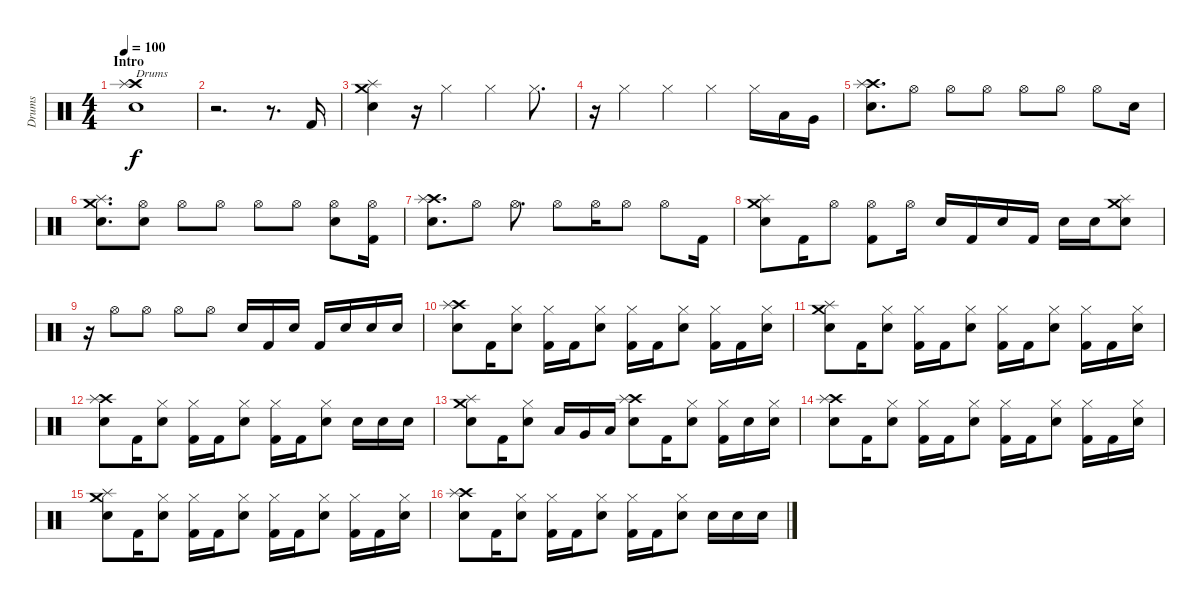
\track ("Drums" "Drums") {instrument percussion}
\staff {score}
\articulation defaults
\ts (4 4)
\section ("" "Intro")
\tempo 100
\clef neutral
\ks c
("Crash high (hit)" "Splash (hit)" "Snare (hit) 2").1{txt "Drums" dy f} |
r.2{d} r.8{d} "Kick (hit) 2".16 |
("Crash medium (hit)" "Splash (hit)" "Snare (hit) 2").4 r.16 "Hi-Hat (closed)".4 "Hi-Hat (closed)".4 "Hi-Hat (closed)".8{d} |
r.16 "Hi-Hat (closed)".4 "Hi-Hat (closed)".4 "Hi-Hat (closed)".4 "Hi-Hat (closed)".16 "Low Floor Tom (hit)".16 "Very Low Tom (hit)".16 |
("Crash high (hit)" "Splash (hit)" "Snare (hit) 2").8{d} "Hi-Hat (open)".8 "Hi-Hat (open)".8 "Hi-Hat (open)".8 "Hi-Hat (open)".8 "Hi-Hat (open)".8 "Hi-Hat (open)".8 "Snare (hit) 2".16 |
("Crash medium (hit)" "Splash (hit)" "Snare (hit) 2").8{d} ("Hi-Hat (open)" "Snare (hit) 2").8 "Hi-Hat (open)".8 "Hi-Hat (open)".8 "Hi-Hat (open)".8 "Hi-Hat (open)".8 ("Hi-Hat (open)" "Snare (hit) 2").8 ("Hi-Hat (open)" "Kick (hit) 2").16 |
("Crash high (hit)" "Splash (hit)" "Snare (hit) 2").8{d} "Hi-Hat (open)".8 "Hi-Hat (open)".8{d} "Hi-Hat (open)".8 "Hi-Hat (open)".16 "Hi-Hat (open)".8 "Hi-Hat (open)".8 "Kick (hit) 2".16 |
("Crash medium (hit)" "Splash (hit)" "Snare (hit) 2").8 "Kick (hit) 2".16 "Hi-Hat (open)".8 ("Hi-Hat (open)" "Kick (hit) 2").8 "Hi-Hat (open)".16 "Snare (hit) 2".16 "Kick (hit) 2".16 "Snare (hit) 2".16 "Kick (hit) 2".16 "Snare (hit) 2".16 "Snare (hit) 2".16 ("Crash medium (hit)" "Splash (hit)" "Snare (hit) 2").8 |
r.16 "Hi-Hat (open)".8 "Hi-Hat (open)".8 "Hi-Hat (open)".8 "Hi-Hat (open)".8 "Snare (hit) 2".16 "Kick (hit) 2".16 "Snare (hit) 2".16 "Kick (hit) 2".16 "Snare (hit) 2".16 "Snare (hit) 2".16 "Snare (hit) 2".16 |
("Crash high (hit)" "Splash (hit)" "Snare (hit) 2").8 "Kick (hit) 2".16 ("Hi-Hat (closed)" "Snare (hit) 2").8 ("Hi-Hat (closed)" "Kick (hit) 2").16 "Kick (hit) 2".16 ("Hi-Hat (closed)" "Snare (hit) 2").8 ("Hi-Hat (closed)" "Kick (hit) 2").16 "Kick (hit) 2".16 ("Hi-Hat (closed)" "Snare (hit) 2").8 ("Hi-Hat (closed)" "Kick (hit) 2").16 "Kick (hit) 2".16 ("Hi-Hat (closed)" "Snare (hit) 2").16 |
("Crash medium (hit)" "Splash (hit)" "Snare (hit) 2").8 "Kick (hit) 2".16 ("Hi-Hat (closed)" "Snare (hit) 2").8 ("Hi-Hat (closed)" "Kick (hit) 2").16 "Kick (hit) 2".16 ("Hi-Hat (closed)" "Snare (hit) 2").8 ("Hi-Hat (closed)" "Kick (hit) 2").16 "Kick (hit) 2".16 ("Hi-Hat (closed)" "Snare (hit) 2").8 ("Hi-Hat (closed)" "Kick (hit) 2").16 "Kick (hit) 2".16 ("Hi-Hat (closed)" "Snare (hit) 2").16 |
("Crash high (hit)" "Splash (hit)" "Snare (hit) 2").8 "Kick (hit) 2".16 ("Hi-Hat (closed)" "Snare (hit) 2").8 ("Hi-Hat (closed)" "Kick (hit) 2").16 "Kick (hit) 2".16 ("Hi-Hat (closed)" "Snare (hit) 2").8 ("Hi-Hat (closed)" "Kick (hit) 2").16 "Kick (hit) 2".16 ("Hi-Hat (closed)" "Snare (hit) 2").8 "Snare (hit) 2".16 "Snare (hit) 2".16 "Snare (hit) 2".16 |
("Crash medium (hit)" "Splash (hit)" "Snare (hit) 2").8 "Kick (hit) 2".16 ("Hi-Hat (closed)" "Snare (hit) 2").8 "Low Tom (hit)".16 "Very Low Tom (hit)".16 "Low Floor Tom (hit)".16 ("Crash high (hit)" "Splash (hit)" "Snare (hit) 2").8 "Kick (hit) 2".16 ("Hi-Hat (closed)" "Snare (hit) 2").8 ("Hi-Hat (closed)" "Kick (hit) 2").16 "Snare (hit) 2".16 ("Hi-Hat (closed)" "Snare (hit) 2").16 |
("Crash high (hit)" "Splash (hit)" "Snare (hit) 2").8 "Kick (hit) 2".16 ("Hi-Hat (closed)" "Snare (hit) 2").8 ("Hi-Hat (closed)" "Kick (hit) 2").16 "Kick (hit) 2".16 ("Hi-Hat (closed)" "Snare (hit) 2").8 ("Hi-Hat (closed)" "Kick (hit) 2").16 "Kick (hit) 2".16 ("Hi-Hat (closed)" "Snare (hit) 2").8 ("Hi-Hat (closed)" "Kick (hit) 2").16 "Kick (hit) 2".16 ("Hi-Hat (closed)" "Snare (hit) 2").16 |
("Crash medium (hit)" "Splash (hit)" "Snare (hit) 2").8 "Kick (hit) 2".16 ("Hi-Hat (closed)" "Snare (hit) 2").8 ("Hi-Hat (closed)" "Kick (hit) 2").16 "Kick (hit) 2".16 ("Hi-Hat (closed)" "Snare (hit) 2").8 ("Hi-Hat (closed)" "Kick (hit) 2").16 "Kick (hit) 2".16 ("Hi-Hat (closed)" "Snare (hit) 2").8 ("Hi-Hat (closed)" "Kick (hit) 2").16 "Kick (hit) 2".16 ("Hi-Hat (closed)" "Snare (hit) 2").16 |
("Crash high (hit)" "Splash (hit)" "Snare (hit) 2").8 "Kick (hit) 2".16 ("Hi-Hat (closed)" "Snare (hit) 2").8 ("Hi-Hat (closed)" "Kick (hit) 2").16 "Kick (hit) 2".16 ("Hi-Hat (closed)" "Snare (hit) 2").8 ("Hi-Hat (closed)" "Kick (hit) 2").16 "Kick (hit) 2".16 ("Hi-Hat (closed)" "Snare (hit) 2").8 "Snare (hit) 2".16 "Snare (hit) 2".16 "Snare (hit) 2".16
